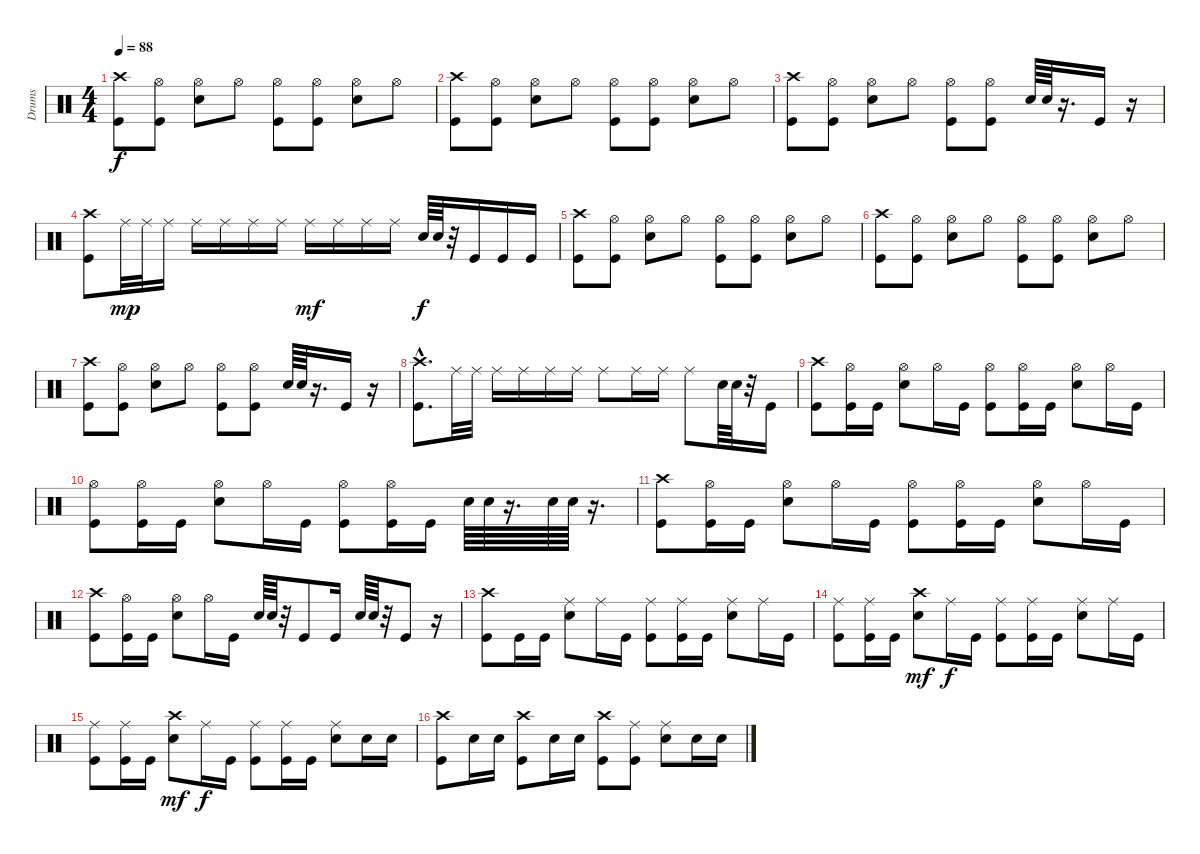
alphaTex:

\track ("Drums" "Drums") {instrument percussion}
\staff {score}
\articulation defaults
\ts (4 4)
\tempo 88
\clef neutral
\ks c
("Crash high (hit)" "Kick (hit)").8{dy f} ("Hi-Hat (open)" "Kick (hit)").8 ("Hi-Hat (open)" "Snare (hit) 2").8 "Hi-Hat (open)".8 ("Hi-Hat (open)" "Kick (hit)").8 ("Hi-Hat (open)" "Kick (hit)").8 ("Hi-Hat (open)" "Snare (hit) 2").8 "Hi-Hat (open)".8 |
("Crash high (hit)" "Kick (hit)").8 ("Hi-Hat (open)" "Kick (hit)").8 ("Hi-Hat (open)" "Snare (hit) 2").8 "Hi-Hat (open)".8 ("Hi-Hat (open)" "Kick (hit)").8 ("Hi-Hat (open)" "Kick (hit)").8 ("Hi-Hat (open)" "Snare (hit) 2").8 "Hi-Hat (open)".8 |
("Crash high (hit)" "Kick (hit)").8 ("Hi-Hat (open)" "Kick (hit)").8 ("Hi-Hat (open)" "Snare (hit) 2").8 "Hi-Hat (open)".8 ("Hi-Hat (open)" "Kick (hit)").8 ("Hi-Hat (open)" "Kick (hit)").8 "Snare (hit) 2".64 "Snare (hit) 2".64 r.16{d} "Kick (hit)".16 r.16 |
("Crash high (hit)" "Kick (hit)").8 "Ride (middle)".32{dy mp} "Ride (middle)".32 "Ride (middle)".16 "Ride (middle)".16 "Ride (middle)".16 "Ride (middle)".16 "Ride (middle)".16 "Ride (middle)".16{dy mf} "Ride (middle)".16 "Ride (middle)".16 "Ride (middle)".16 "Snare (hit) 2".64{dy f} "Snare (hit) 2".64 r.32 "Kick (hit)".16 "Kick (hit)".16 "Kick (hit)".16 |
("Crash high (hit)" "Kick (hit)").8 ("Hi-Hat (open)" "Kick (hit)").8 ("Hi-Hat (open)" "Snare (hit) 2").8 "Hi-Hat (open)".8 ("Hi-Hat (open)" "Kick (hit)").8 ("Hi-Hat (open)" "Kick (hit)").8 ("Hi-Hat (open)" "Snare (hit) 2").8 "Hi-Hat (open)".8 |
("Crash high (hit)" "Kick (hit)").8 ("Hi-Hat (open)" "Kick (hit)").8 ("Hi-Hat (open)" "Snare (hit) 2").8 "Hi-Hat (open)".8 ("Hi-Hat (open)" "Kick (hit)").8 ("Hi-Hat (open)" "Kick (hit)").8 ("Hi-Hat (open)" "Snare (hit) 2").8 "Hi-Hat (open)".8 |
("Crash high (hit)" "Kick (hit)").8 ("Hi-Hat (open)" "Kick (hit)").8 ("Hi-Hat (open)" "Snare (hit) 2").8 "Hi-Hat (open)".8 ("Hi-Hat (open)" "Kick (hit)").8 ("Hi-Hat (open)" "Kick (hit)").8 "Snare (hit) 2".64 "Snare (hit) 2".64 r.16{d} "Kick (hit)".16 r.16 |
("Crash high (hit)"{hac} "Kick (hit)"{hac}).8{d} "Ride (middle)".32 "Ride (middle)".32 "Ride (middle)".16 "Ride (middle)".16 "Ride (middle)".16 "Ride (middle)".16 "Ride (middle)".8 "Ride (middle)".16 "Ride (middle)".16 "Ride (middle)".8 "Snare (hit) 2".64 "Snare (hit) 2".64 r.32 "Kick (hit)".16 |
("Crash high (hit)" "Kick (hit)").8 ("Hi-Hat (open)" "Kick (hit)").16 "Kick (hit)".16 ("Hi-Hat (open)" "Snare (hit) 2").8 "Hi-Hat (open)".16 "Kick (hit)".16 ("Hi-Hat (open)" "Kick (hit)").8 ("Hi-Hat (open)" "Kick (hit)").16 "Kick (hit)".16 ("Hi-Hat (open)" "Snare (hit) 2").8 "Hi-Hat (open)".16 "Kick (hit)".16 |
("Hi-Hat (open)" "Kick (hit)").8 ("Hi-Hat (open)" "Kick (hit)").16 "Kick (hit)".16 ("Hi-Hat (open)" "Snare (hit) 2").8 "Hi-Hat (open)".16 "Kick (hit)".16 ("Hi-Hat (open)" "Kick (hit)").8 ("Hi-Hat (open)" "Kick (hit)").16 "Kick (hit)".16 "Snare (hit) 2".64 "Snare (hit) 2".64 r.16{d} "Snare (hit) 2".64 "Snare (hit) 2".64 r.16{d} |
("Crash high (hit)" "Kick (hit)").8 ("Hi-Hat (open)" "Kick (hit)").16 "Kick (hit)".16 ("Hi-Hat (open)" "Snare (hit) 2").8 "Hi-Hat (open)".16 "Kick (hit)".16 ("Hi-Hat (open)" "Kick (hit)").8 ("Hi-Hat (open)" "Kick (hit)").16 "Kick (hit)".16 ("Hi-Hat (open)" "Snare (hit) 2").8 "Hi-Hat (open)".16 "Kick (hit)".16 |
("Crash high (hit)" "Kick (hit)").8 ("Hi-Hat (open)" "Kick (hit)").16 "Kick (hit)".16 ("Hi-Hat (open)" "Snare (hit) 2").8 "Hi-Hat (open)".16 "Kick (hit)".16 "Snare (hit) 2".64 "Snare (hit) 2".64 r.32 "Kick (hit)".8 "Kick (hit)".16 "Snare (hit) 2".64 "Snare (hit) 2".64 r.32 "Kick (hit)".8 r.16 |
("Crash high (hit)" "Kick (hit)").8 "Kick (hit)".16 "Kick (hit)".16 ("Ride (middle)" "Snare (hit) 2").8 "Ride (middle)".16 "Kick (hit)".16 ("Ride (middle)" "Kick (hit)").8 ("Ride (middle)" "Kick (hit)").16 "Kick (hit)".16 ("Ride (middle)" "Snare (hit) 2").8 "Ride (middle)".16 "Kick (hit)".16 |
("Ride (middle)" "Kick (hit)").8 ("Ride (middle)" "Kick (hit)").16 "Kick (hit)".16 ("Crash high (hit)" "Snare (hit) 2").8{dy mf} "Ride (middle)".16{dy f} "Kick (hit)".16 ("Ride (middle)" "Kick (hit)").8 ("Ride (middle)" "Kick (hit)").16 "Kick (hit)".16 ("Ride (middle)" "Snare (hit) 2").8 "Ride (middle)".16 "Kick (hit)".16 |
("Ride (middle)" "Kick (hit)").8 ("Ride (middle)" "Kick (hit)").16 "Kick (hit)".16 ("Crash high (hit)" "Snare (hit) 2").8{dy mf} "Ride (middle)".16{dy f} "Kick (hit)".16 ("Ride (middle)" "Kick (hit)").8 ("Ride (middle)" "Kick (hit)").16 "Kick (hit)".16 ("Ride (middle)" "Snare (hit) 2").8 "Snare (hit) 2".16 "Snare (hit) 2".16 |
("Crash high (hit)" "Kick (hit)").8 "Snare (hit) 2".16 "Snare (hit) 2".16 ("Crash high (hit)" "Kick (hit)").8 "Snare (hit) 2".16 "Snare (hit) 2".16 ("Crash high (hit)" "Kick (hit)").8 ("Ride (middle)" "Kick (hit)").8 ("Ride (middle)" "Snare (hit) 2").8 "Snare (hit) 2".16 "Snare (hit) 2".16
